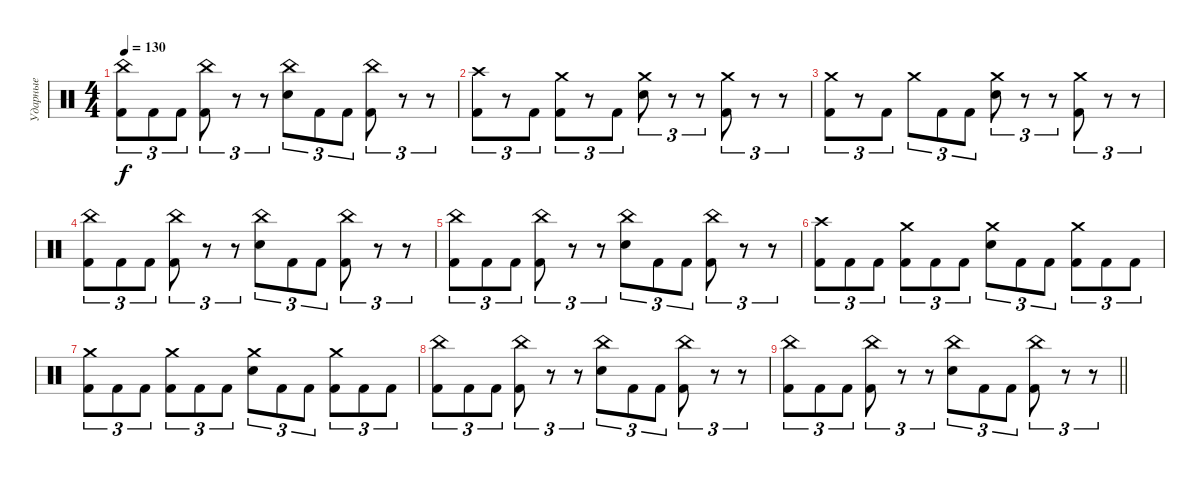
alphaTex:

\track ("Ударные" "Ударные") {instrument percussion}
\staff {score}
\articulation defaults
\ts (4 4)
\tempo 130
\clef neutral
\ks c
("China (hit)" "Kick (hit) 2").8{tu (3 2) dy f} "Kick (hit) 2".8{tu (3 2)} "Kick (hit) 2".8{tu (3 2)} ("China (hit)" "Kick (hit) 2").8{tu (3 2)} r.8{tu (3 2)} r.8{tu (3 2)} ("China (hit)" "Electric Snare (hit)").8{tu (3 2)} "Kick (hit) 2".8{tu (3 2)} "Kick (hit) 2".8{tu (3 2)} ("China (hit)" "Kick (hit) 2").8{tu (3 2)} r.8{tu (3 2)} r.8{tu (3 2)} |
("Crash high (hit)" "Kick (hit) 2").8{tu (3 2)} r.8{tu (3 2)} "Kick (hit) 2".8{tu (3 2)} ("Crash medium (hit)" "Kick (hit) 2").8{tu (3 2)} r.8{tu (3 2)} "Kick (hit) 2".8{tu (3 2)} ("Crash medium (hit)" "Electric Snare (hit)").8{tu (3 2)} r.8{tu (3 2)} r.8{tu (3 2)} ("Crash medium (hit)" "Kick (hit) 2").8{tu (3 2)} r.8{tu (3 2)} r.8{tu (3 2)} |
("Crash medium (hit)" "Kick (hit) 2").8{tu (3 2)} r.8{tu (3 2)} "Kick (hit) 2".8{tu (3 2)} "Crash medium (hit)".8{tu (3 2)} "Kick (hit) 2".8{tu (3 2)} "Kick (hit) 2".8{tu (3 2)} ("Crash medium (hit)" "Electric Snare (hit)").8{tu (3 2)} r.8{tu (3 2)} r.8{tu (3 2)} ("Crash medium (hit)" "Kick (hit) 2").8{tu (3 2)} r.8{tu (3 2)} r.8{tu (3 2)} |
("China (hit)" "Kick (hit) 2").8{tu (3 2)} "Kick (hit) 2".8{tu (3 2)} "Kick (hit) 2".8{tu (3 2)} ("China (hit)" "Kick (hit) 2").8{tu (3 2)} r.8{tu (3 2)} r.8{tu (3 2)} ("China (hit)" "Electric Snare (hit)").8{tu (3 2)} "Kick (hit) 2".8{tu (3 2)} "Kick (hit) 2".8{tu (3 2)} ("China (hit)" "Kick (hit) 2").8{tu (3 2)} r.8{tu (3 2)} r.8{tu (3 2)} |
("China (hit)" "Kick (hit) 2").8{tu (3 2)} "Kick (hit) 2".8{tu (3 2)} "Kick (hit) 2".8{tu (3 2)} ("China (hit)" "Kick (hit) 2").8{tu (3 2)} r.8{tu (3 2)} r.8{tu (3 2)} ("China (hit)" "Electric Snare (hit)").8{tu (3 2)} "Kick (hit) 2".8{tu (3 2)} "Kick (hit) 2".8{tu (3 2)} ("China (hit)" "Kick (hit) 2").8{tu (3 2)} r.8{tu (3 2)} r.8{tu (3 2)} |
("Crash high (hit)" "Kick (hit) 2").8{tu (3 2)} "Kick (hit) 2".8{tu (3 2)} "Kick (hit) 2".8{tu (3 2)} ("Crash medium (hit)" "Kick (hit) 2").8{tu (3 2)} "Kick (hit) 2".8{tu (3 2)} "Kick (hit) 2".8{tu (3 2)} ("Crash medium (hit)" "Electric Snare (hit)").8{tu (3 2)} "Kick (hit) 2".8{tu (3 2)} "Kick (hit) 2".8{tu (3 2)} ("Crash medium (hit)" "Kick (hit) 2").8{tu (3 2)} "Kick (hit) 2".8{tu (3 2)} "Kick (hit) 2".8{tu (3 2)} |
("Crash medium (hit)" "Kick (hit) 2").8{tu (3 2)} "Kick (hit) 2".8{tu (3 2)} "Kick (hit) 2".8{tu (3 2)} ("Crash medium (hit)" "Kick (hit) 2").8{tu (3 2)} "Kick (hit) 2".8{tu (3 2)} "Kick (hit) 2".8{tu (3 2)} ("Crash medium (hit)" "Electric Snare (hit)").8{tu (3 2)} "Kick (hit) 2".8{tu (3 2)} "Kick (hit) 2".8{tu (3 2)} ("Crash medium (hit)" "Kick (hit) 2").8{tu (3 2)} "Kick (hit) 2".8{tu (3 2)} "Kick (hit) 2".8{tu (3 2)} |
("China (hit)" "Kick (hit) 2").8{tu (3 2)} "Kick (hit) 2".8{tu (3 2)} "Kick (hit) 2".8{tu (3 2)} ("China (hit)" "Kick (hit) 2").8{tu (3 2)} r.8{tu (3 2)} r.8{tu (3 2)} ("China (hit)" "Electric Snare (hit)").8{tu (3 2)} "Kick (hit) 2".8{tu (3 2)} "Kick (hit) 2".8{tu (3 2)} ("China (hit)" "Kick (hit) 2").8{tu (3 2)} r.8{tu (3 2)} r.8{tu (3 2)} |
\barLineRight lightlight
("China (hit)" "Kick (hit) 2").8{tu (3 2)} "Kick (hit) 2".8{tu (3 2)} "Kick (hit) 2".8{tu (3 2)} ("China (hit)" "Kick (hit) 2").8{tu (3 2)} r.8{tu (3 2)} r.8{tu (3 2)} ("China (hit)" "Electric Snare (hit)").8{tu (3 2)} "Kick (hit) 2".8{tu (3 2)} "Kick (hit) 2".8{tu (3 2)} ("China (hit)" "Kick (hit) 2").8{tu (3 2)} r.8{tu (3 2)} r.8{tu (3 2)}
